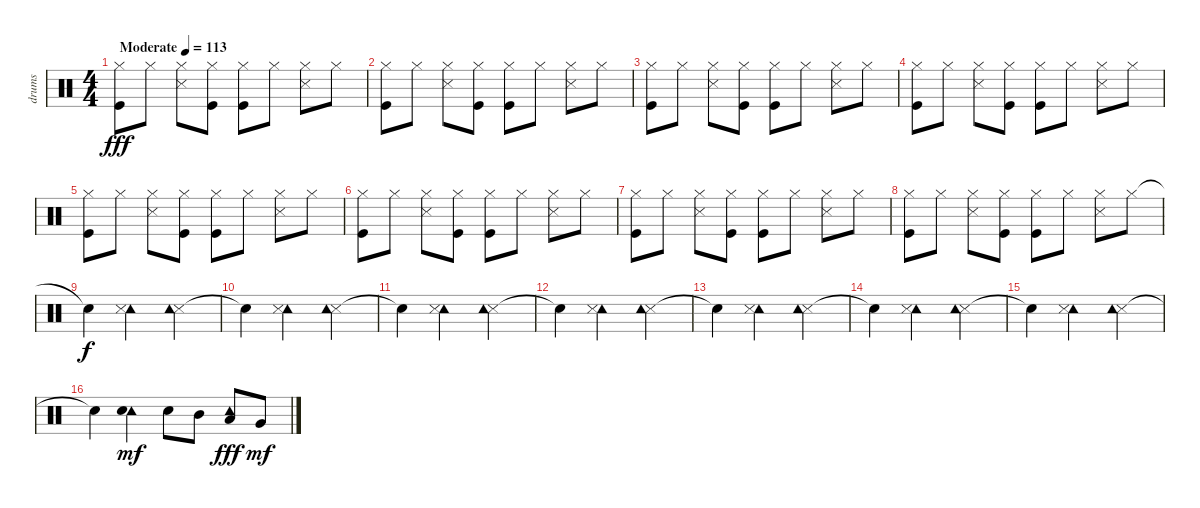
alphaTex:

\track ("drums" "drums") {instrument percussion}
\staff {score}
\articulation defaults
\ts (4 4)
\tempo (113 "Moderate")
\clef neutral
\ks c
("Kick (hit)" "Hi-Hat (closed)").8{dy fff} "Hi-Hat (closed)".8 ("Snare (side stick) 3" "Hi-Hat (closed)").8 ("Kick (hit)" "Hi-Hat (closed)").8 ("Kick (hit)" "Hi-Hat (closed)").8 "Hi-Hat (closed)".8 ("Snare (side stick) 3" "Hi-Hat (closed)").8 "Hi-Hat (closed)".8 |
("Kick (hit)" "Hi-Hat (closed)").8 "Hi-Hat (closed)".8 ("Hi-Hat (closed)" "Snare (side stick) 3").8 ("Kick (hit)" "Hi-Hat (closed)").8 ("Kick (hit)" "Hi-Hat (closed)").8 "Hi-Hat (closed)".8 ("Snare (side stick) 3" "Hi-Hat (closed)").8 "Hi-Hat (closed)".8 |
("Kick (hit)" "Hi-Hat (closed)").8 "Hi-Hat (closed)".8 ("Snare (side stick) 3" "Hi-Hat (closed)").8 ("Kick (hit)" "Hi-Hat (closed)").8 ("Kick (hit)" "Hi-Hat (closed)").8 "Hi-Hat (closed)".8 ("Hi-Hat (closed)" "Snare (side stick) 3").8 "Hi-Hat (closed)".8 |
("Kick (hit)" "Hi-Hat (closed)").8 "Hi-Hat (closed)".8 ("Hi-Hat (closed)" "Snare (side stick) 3").8 ("Kick (hit)" "Hi-Hat (closed)").8 ("Kick (hit)" "Hi-Hat (closed)").8 "Hi-Hat (closed)".8 ("Hi-Hat (closed)" "Snare (side stick) 3").8 "Hi-Hat (closed)".8 |
("Kick (hit)" "Hi-Hat (closed)").8 "Hi-Hat (closed)".8 ("Snare (side stick) 3" "Hi-Hat (closed)").8 ("Kick (hit)" "Hi-Hat (closed)").8 ("Kick (hit)" "Hi-Hat (closed)").8 "Hi-Hat (closed)".8 ("Snare (side stick) 3" "Hi-Hat (closed)").8 "Hi-Hat (closed)".8 |
("Kick (hit)" "Hi-Hat (closed)").8 "Hi-Hat (closed)".8 ("Hi-Hat (closed)" "Snare (side stick) 3").8 ("Kick (hit)" "Hi-Hat (closed)").8 ("Kick (hit)" "Hi-Hat (closed)").8 "Hi-Hat (closed)".8 ("Snare (side stick) 3" "Hi-Hat (closed)").8 "Hi-Hat (closed)".8 |
("Kick (hit)" "Hi-Hat (closed)").8 "Hi-Hat (closed)".8 ("Snare (side stick) 3" "Hi-Hat (closed)").8 ("Kick (hit)" "Hi-Hat (closed)").8 ("Kick (hit)" "Hi-Hat (closed)").8 "Hi-Hat (closed)".8 ("Hi-Hat (closed)" "Snare (side stick) 3").8 "Hi-Hat (closed)".8 |
("Kick (hit)" "Hi-Hat (closed)").8 "Hi-Hat (closed)".8 ("Hi-Hat (closed)" "Snare (side stick) 3").8 ("Kick (hit)" "Hi-Hat (closed)").8 ("Kick (hit)" "Hi-Hat (closed)").8 "Hi-Hat (closed)".8 ("Hi-Hat (closed)" "Snare (side stick) 3").8 "Hi-Hat (closed)".8 |
"Snare (hit)"{t}.4{dy f} ("Tambourine (hit)" "Snare (side stick) 3").2 ("Snare (side stick) 3" "Tambourine (hit)").4 |
"Snare (hit)"{t}.4 ("Tambourine (hit)" "Snare (side stick) 3").2 ("Snare (side stick) 3" "Tambourine (hit)").4 |
"Snare (hit)"{t}.4 ("Tambourine (hit)" "Snare (side stick) 3").2 ("Snare (side stick) 3" "Tambourine (hit)").4 |
"Snare (hit)"{t}.4 ("Tambourine (hit)" "Snare (side stick) 3").2 ("Snare (side stick) 3" "Tambourine (hit)").4 |
"Snare (hit)"{t}.4 ("Tambourine (hit)" "Snare (side stick) 3").2 ("Snare (side stick) 3" "Tambourine (hit)").4 |
"Snare (hit)"{t}.4 ("Tambourine (hit)" "Snare (side stick) 3").2 ("Snare (side stick) 3" "Tambourine (hit)").4 |
"Snare (hit)"{t}.4 ("Tambourine (hit)" "Snare (side stick) 3").2 ("Snare (side stick) 3" "Tambourine (hit)").4 |
"Snare (hit)"{t}.4 ("Tambourine (hit)" "Electric Snare (hit)").4{dy mf} "Electric Snare (hit)".8 "Mid Tom (hit)".8 ("Low Tom (hit)" "Tambourine (hit)").8{dy fff} "Very Low Tom (hit)".8{dy mf}
